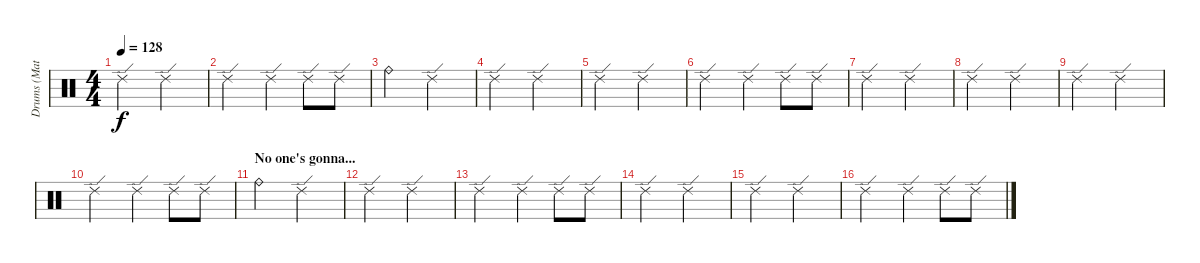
\track ("Drums (Matt)" "Drums (Mat") {instrument percussion}
\staff {score}
\articulation defaults
\ts (4 4)
\tempo 128
\clef neutral
\ks c "Ride (edge) 2".2{dy f} "Ride (edge) 2".2
|
"Ride (edge) 2".2 "Ride (edge) 2".4 "Ride (edge) 2".8 "Ride (edge) 2".8 |
"Ride (bell)".2 "Ride (edge) 2".2 |
"Ride (edge) 2".2 "Ride (edge) 2".2 |
"Ride (edge) 2".2 "Ride (edge) 2".2 |
"Ride (edge) 2".2 "Ride (edge) 2".4 "Ride (edge) 2".8 "Ride (edge) 2".8 |
"Ride (edge) 2".2 "Ride (edge) 2".2 |
"Ride (edge) 2".2 "Ride (edge) 2".2 |
"Ride (edge) 2".2 "Ride (edge) 2".2 |
"Ride (edge) 2".2 "Ride (edge) 2".4 "Ride (edge) 2".8 "Ride (edge) 2".8 |
\section ("" "No one's gonna...")
"Ride (bell)".2 "Ride (edge) 2".2 |
"Ride (edge) 2".2 "Ride (edge) 2".2 |
"Ride (edge) 2".2 "Ride (edge) 2".4 "Ride (edge) 2".8 "Ride (edge) 2".8 |
"Ride (edge) 2".2 "Ride (edge) 2".2 |
"Ride (edge) 2".2 "Ride (edge) 2".2 |
"Ride (edge) 2".2 "Ride (edge) 2".4 "Ride (edge) 2".8 "Ride (edge) 2".8
